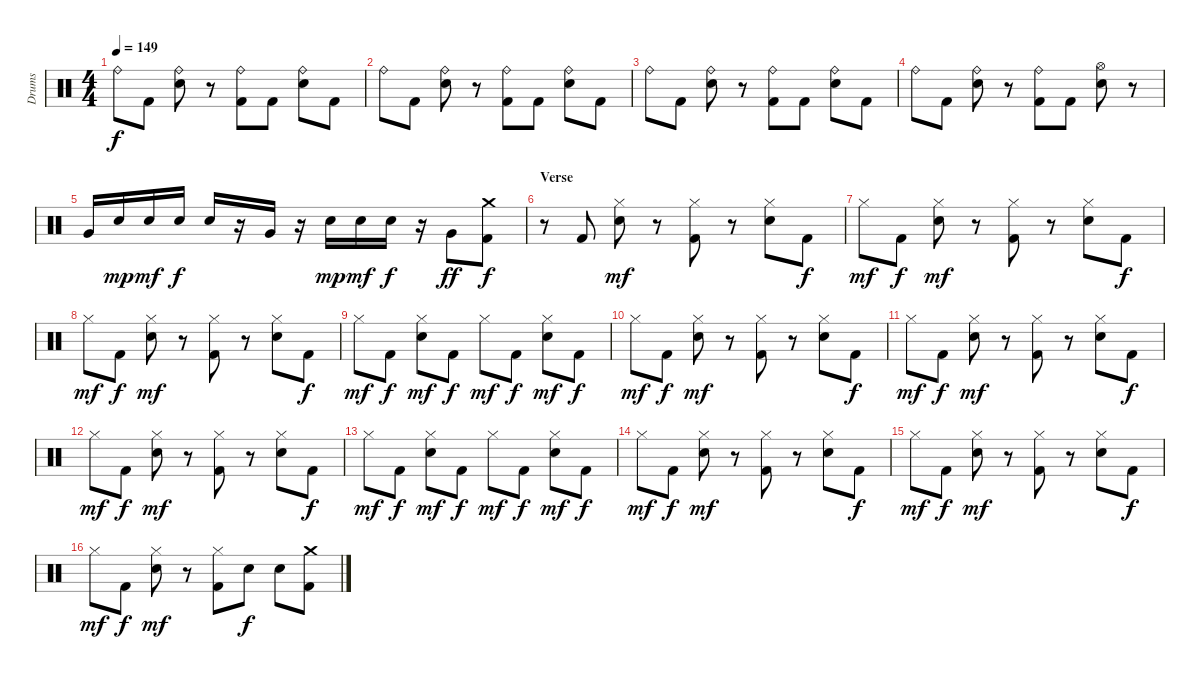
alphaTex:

\track ("Drums" "Drums") {instrument percussion}
\staff {score}
\articulation defaults
\ts (4 4)
\tempo 149
\clef neutral
\ks c "Ride (bell)".8{dy f} "Kick (hit) 2".8
("Ride (bell)" "Snare (hit) 2").8 r.8 ("Ride (bell)" "Kick (hit) 2").8 "Kick (hit) 2".8 ("Ride (bell)" "Snare (hit) 2").8 "Kick (hit) 2".8 |
"Ride (bell)".8 "Kick (hit) 2".8 ("Ride (bell)" "Snare (hit) 2").8 r.8 ("Ride (bell)" "Kick (hit) 2").8 "Kick (hit) 2".8 ("Ride (bell)" "Snare (hit) 2").8 "Kick (hit) 2".8 |
"Ride (bell)".8 "Kick (hit) 2".8 ("Ride (bell)" "Snare (hit) 2").8 r.8 ("Ride (bell)" "Kick (hit) 2").8 "Kick (hit) 2".8 ("Ride (bell)" "Snare (hit) 2").8 "Kick (hit) 2".8 |
"Ride (bell)".8 "Kick (hit) 2".8 ("Ride (bell)" "Snare (hit) 2").8 r.8 ("Ride (bell)" "Kick (hit) 2").8 "Kick (hit) 2".8 ("Hi-Hat (open)" "Snare (hit) 2").8 r.8 |
"Very Low Tom (hit)".16 "Snare (hit) 2".16{dy mp} "Snare (hit) 2".16{dy mf} "Snare (hit) 2".16{dy f} "Snare (hit) 2".16 r.16 "Very Low Tom (hit)".16 r.16 "Snare (hit) 2".16{dy mp} "Snare (hit) 2".16{dy mf} "Snare (hit) 2".16{dy f} r.16 "Very Low Tom (hit)".8{dy ff} ("Crash medium (hit)" "Kick (hit) 2").8{dy f} |
\section ("" "Verse")
r.8 "Kick (hit) 2".8 ("Hi-Hat (closed)" "Snare (hit) 2").8{dy mf} r.8 ("Hi-Hat (closed)" "Kick (hit) 2").8 r.8 ("Hi-Hat (closed)" "Snare (hit) 2").8 "Kick (hit) 2".8{dy f} |
"Hi-Hat (closed)".8{dy mf} "Kick (hit) 2".8{dy f} ("Hi-Hat (closed)" "Snare (hit) 2").8{dy mf} r.8 ("Hi-Hat (closed)" "Kick (hit) 2").8 r.8 ("Hi-Hat (closed)" "Snare (hit) 2").8 "Kick (hit) 2".8{dy f} |
"Hi-Hat (closed)".8{dy mf} "Kick (hit) 2".8{dy f} ("Hi-Hat (closed)" "Snare (hit) 2").8{dy mf} r.8 ("Hi-Hat (closed)" "Kick (hit) 2").8 r.8 ("Hi-Hat (closed)" "Snare (hit) 2").8 "Kick (hit) 2".8{dy f} |
"Hi-Hat (closed)".8{dy mf} "Kick (hit) 2".8{dy f} ("Hi-Hat (closed)" "Snare (hit) 2").8{dy mf} "Kick (hit) 2".8{dy f} "Hi-Hat (closed)".8{dy mf} "Kick (hit) 2".8{dy f} ("Hi-Hat (closed)" "Snare (hit) 2").8{dy mf} "Kick (hit) 2".8{dy f} |
"Hi-Hat (closed)".8{dy mf} "Kick (hit) 2".8{dy f} ("Hi-Hat (closed)" "Snare (hit) 2").8{dy mf} r.8 ("Hi-Hat (closed)" "Kick (hit) 2").8 r.8 ("Hi-Hat (closed)" "Snare (hit) 2").8 "Kick (hit) 2".8{dy f} |
"Hi-Hat (closed)".8{dy mf} "Kick (hit) 2".8{dy f} ("Hi-Hat (closed)" "Snare (hit) 2").8{dy mf} r.8 ("Hi-Hat (closed)" "Kick (hit) 2").8 r.8 ("Hi-Hat (closed)" "Snare (hit) 2").8 "Kick (hit) 2".8{dy f} |
"Hi-Hat (closed)".8{dy mf} "Kick (hit) 2".8{dy f} ("Hi-Hat (closed)" "Snare (hit) 2").8{dy mf} r.8 ("Hi-Hat (closed)" "Kick (hit) 2").8 r.8 ("Hi-Hat (closed)" "Snare (hit) 2").8 "Kick (hit) 2".8{dy f} |
"Hi-Hat (closed)".8{dy mf} "Kick (hit) 2".8{dy f} ("Hi-Hat (closed)" "Snare (hit) 2").8{dy mf} "Kick (hit) 2".8{dy f} "Hi-Hat (closed)".8{dy mf} "Kick (hit) 2".8{dy f} ("Hi-Hat (closed)" "Snare (hit) 2").8{dy mf} "Kick (hit) 2".8{dy f} |
"Hi-Hat (closed)".8{dy mf} "Kick (hit) 2".8{dy f} ("Hi-Hat (closed)" "Snare (hit) 2").8{dy mf} r.8 ("Hi-Hat (closed)" "Kick (hit) 2").8 r.8 ("Hi-Hat (closed)" "Snare (hit) 2").8 "Kick (hit) 2".8{dy f} |
"Hi-Hat (closed)".8{dy mf} "Kick (hit) 2".8{dy f} ("Hi-Hat (closed)" "Snare (hit) 2").8{dy mf} r.8 ("Hi-Hat (closed)" "Kick (hit) 2").8 r.8 ("Hi-Hat (closed)" "Snare (hit) 2").8 "Kick (hit) 2".8{dy f} |
"Hi-Hat (closed)".8{dy mf} "Kick (hit) 2".8{dy f} ("Hi-Hat (closed)" "Snare (hit) 2").8{dy mf} r.8 ("Hi-Hat (closed)" "Kick (hit) 2").8 "Snare (hit) 2".8{dy f} "Snare (hit) 2".8 ("Crash medium (hit)" "Kick (hit) 2").8
